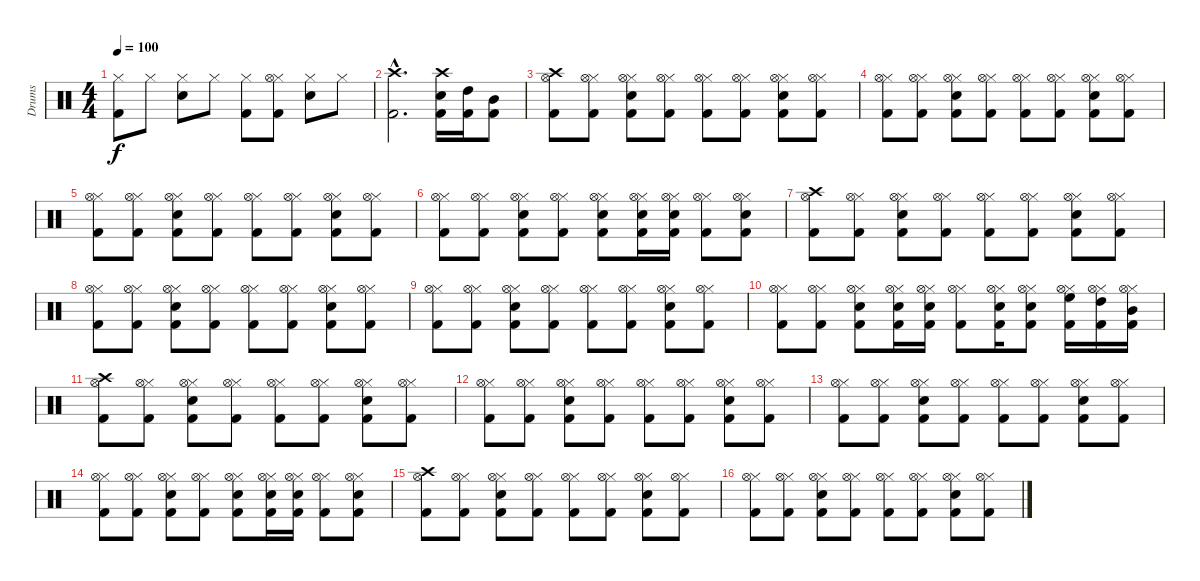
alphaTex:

\track ("Drums" "Drums") {instrument percussion}
\staff {score}
\articulation defaults
\ts (4 4)
\tempo 100
\clef neutral
\ks c
("Hi-Hat (closed)" "Kick (hit) 2").8{dy f} "Hi-Hat (closed)".8 ("Hi-Hat (closed)" "Electric Snare (hit)").8 "Hi-Hat (closed)".8 ("Hi-Hat (closed)" "Kick (hit) 2").8 ("Hi-Hat (closed)" "Kick (hit) 2" "Hi-Hat (open)").8 ("Hi-Hat (closed)" "Electric Snare (hit)").8 "Hi-Hat (closed)".8 |
("Crash high (hit)"{hac} "Kick (hit) 2"{hac}).2{d} ("Crash high (hit)" "Electric Snare (hit)" "Kick (hit) 2").16 ("High Tom (hit)" "Kick (hit) 2").16 ("Mid Tom (hit)" "Kick (hit) 2").8 |
("Crash high (hit)" "Kick (hit) 2" "Hi-Hat (open)").8 ("Hi-Hat (closed)" "Kick (hit) 2" "Hi-Hat (open)").8 ("Hi-Hat (closed)" "Kick (hit) 2" "Electric Snare (hit)" "Hi-Hat (open)").8 ("Hi-Hat (closed)" "Kick (hit) 2" "Hi-Hat (open)").8 ("Hi-Hat (closed)" "Kick (hit) 2" "Hi-Hat (open)").8 ("Hi-Hat (closed)" "Kick (hit) 2" "Hi-Hat (open)").8 ("Hi-Hat (closed)" "Kick (hit) 2" "Electric Snare (hit)" "Hi-Hat (open)").8 ("Hi-Hat (closed)" "Kick (hit) 2" "Hi-Hat (open)").8 |
("Hi-Hat (closed)" "Kick (hit) 2" "Hi-Hat (open)").8 ("Hi-Hat (closed)" "Kick (hit) 2" "Hi-Hat (open)").8 ("Hi-Hat (closed)" "Kick (hit) 2" "Electric Snare (hit)" "Hi-Hat (open)").8 ("Hi-Hat (closed)" "Kick (hit) 2" "Hi-Hat (open)").8 ("Hi-Hat (closed)" "Kick (hit) 2" "Hi-Hat (open)").8 ("Hi-Hat (closed)" "Kick (hit) 2" "Hi-Hat (open)").8 ("Hi-Hat (closed)" "Kick (hit) 2" "Electric Snare (hit)" "Hi-Hat (open)").8 ("Hi-Hat (closed)" "Kick (hit) 2" "Hi-Hat (open)").8 |
("Hi-Hat (closed)" "Kick (hit) 2" "Hi-Hat (open)").8 ("Hi-Hat (closed)" "Kick (hit) 2" "Hi-Hat (open)").8 ("Hi-Hat (closed)" "Kick (hit) 2" "Electric Snare (hit)" "Hi-Hat (open)").8 ("Hi-Hat (closed)" "Kick (hit) 2" "Hi-Hat (open)").8 ("Hi-Hat (closed)" "Kick (hit) 2" "Hi-Hat (open)").8 ("Hi-Hat (closed)" "Kick (hit) 2" "Hi-Hat (open)").8 ("Hi-Hat (closed)" "Kick (hit) 2" "Electric Snare (hit)" "Hi-Hat (open)").8 ("Hi-Hat (closed)" "Kick (hit) 2" "Hi-Hat (open)").8 |
("Hi-Hat (closed)" "Kick (hit) 2" "Hi-Hat (open)").8 ("Hi-Hat (closed)" "Kick (hit) 2" "Hi-Hat (open)").8 ("Hi-Hat (closed)" "Kick (hit) 2" "Electric Snare (hit)" "Hi-Hat (open)").8 ("Hi-Hat (closed)" "Kick (hit) 2" "Hi-Hat (open)").8 ("Hi-Hat (closed)" "Kick (hit) 2" "Electric Snare (hit)" "Hi-Hat (open)").8 ("Hi-Hat (closed)" "Kick (hit) 2" "Electric Snare (hit)" "Hi-Hat (open)").16 ("Hi-Hat (closed)" "Kick (hit) 2" "Electric Snare (hit)" "Hi-Hat (open)").16 ("Hi-Hat (closed)" "Kick (hit) 2" "Hi-Hat (open)").8 ("Hi-Hat (closed)" "Kick (hit) 2" "Electric Snare (hit)" "Hi-Hat (open)").8 |
("Crash high (hit)" "Kick (hit) 2" "Hi-Hat (open)").8 ("Hi-Hat (closed)" "Kick (hit) 2" "Hi-Hat (open)").8 ("Hi-Hat (closed)" "Kick (hit) 2" "Electric Snare (hit)" "Hi-Hat (open)").8 ("Hi-Hat (closed)" "Kick (hit) 2" "Hi-Hat (open)").8 ("Hi-Hat (closed)" "Kick (hit) 2" "Hi-Hat (open)").8 ("Hi-Hat (closed)" "Kick (hit) 2" "Hi-Hat (open)").8 ("Hi-Hat (closed)" "Kick (hit) 2" "Electric Snare (hit)" "Hi-Hat (open)").8 ("Hi-Hat (closed)" "Kick (hit) 2" "Hi-Hat (open)").8 |
("Hi-Hat (closed)" "Kick (hit) 2" "Hi-Hat (open)").8 ("Hi-Hat (closed)" "Kick (hit) 2" "Hi-Hat (open)").8 ("Hi-Hat (closed)" "Kick (hit) 2" "Electric Snare (hit)" "Hi-Hat (open)").8 ("Hi-Hat (closed)" "Kick (hit) 2" "Hi-Hat (open)").8 ("Hi-Hat (closed)" "Kick (hit) 2" "Hi-Hat (open)").8 ("Hi-Hat (closed)" "Kick (hit) 2" "Hi-Hat (open)").8 ("Hi-Hat (closed)" "Kick (hit) 2" "Electric Snare (hit)" "Hi-Hat (open)").8 ("Hi-Hat (closed)" "Kick (hit) 2" "Hi-Hat (open)").8 |
("Hi-Hat (closed)" "Kick (hit) 2" "Hi-Hat (open)").8 ("Hi-Hat (closed)" "Kick (hit) 2" "Hi-Hat (open)").8 ("Hi-Hat (closed)" "Kick (hit) 2" "Electric Snare (hit)" "Hi-Hat (open)").8 ("Hi-Hat (closed)" "Kick (hit) 2" "Hi-Hat (open)").8 ("Hi-Hat (closed)" "Kick (hit) 2" "Hi-Hat (open)").8 ("Hi-Hat (closed)" "Kick (hit) 2" "Hi-Hat (open)").8 ("Hi-Hat (closed)" "Kick (hit) 2" "Electric Snare (hit)" "Hi-Hat (open)").8 ("Hi-Hat (closed)" "Kick (hit) 2" "Hi-Hat (open)").8 |
("Hi-Hat (closed)" "Kick (hit) 2" "Hi-Hat (open)").8 ("Hi-Hat (closed)" "Kick (hit) 2" "Hi-Hat (open)").8 ("Hi-Hat (closed)" "Kick (hit) 2" "Electric Snare (hit)" "Hi-Hat (open)").8 ("Hi-Hat (closed)" "Kick (hit) 2" "Electric Snare (hit)" "Hi-Hat (open)").16 ("Hi-Hat (closed)" "Kick (hit) 2" "Electric Snare (hit)" "Hi-Hat (open)").16 ("Hi-Hat (closed)" "Kick (hit) 2" "Hi-Hat (open)").8 ("Hi-Hat (closed)" "Kick (hit) 2" "Electric Snare (hit)" "Hi-Hat (open)").16 ("Hi-Hat (closed)" "Kick (hit) 2" "Electric Snare (hit)" "Hi-Hat (open)").8 ("Hi-Hat (closed)" "Kick (hit) 2" "High Floor Tom (hit)" "Hi-Hat (open)").16 ("Hi-Hat (closed)" "Kick (hit) 2" "High Tom (hit)" "Hi-Hat (open)").16 ("Hi-Hat (closed)" "Kick (hit) 2" "Mid Tom (hit)" "Hi-Hat (open)").16 |
("Crash high (hit)" "Kick (hit) 2" "Hi-Hat (open)").8 ("Hi-Hat (closed)" "Kick (hit) 2" "Hi-Hat (open)").8 ("Hi-Hat (closed)" "Kick (hit) 2" "Electric Snare (hit)" "Hi-Hat (open)").8 ("Hi-Hat (closed)" "Kick (hit) 2" "Hi-Hat (open)").8 ("Hi-Hat (closed)" "Kick (hit) 2" "Hi-Hat (open)").8 ("Hi-Hat (closed)" "Kick (hit) 2" "Hi-Hat (open)").8 ("Hi-Hat (closed)" "Kick (hit) 2" "Electric Snare (hit)" "Hi-Hat (open)").8 ("Hi-Hat (closed)" "Kick (hit) 2" "Hi-Hat (open)").8 |
("Hi-Hat (closed)" "Kick (hit) 2" "Hi-Hat (open)").8 ("Hi-Hat (closed)" "Kick (hit) 2" "Hi-Hat (open)").8 ("Hi-Hat (closed)" "Kick (hit) 2" "Electric Snare (hit)" "Hi-Hat (open)").8 ("Hi-Hat (closed)" "Kick (hit) 2" "Hi-Hat (open)").8 ("Hi-Hat (closed)" "Kick (hit) 2" "Hi-Hat (open)").8 ("Hi-Hat (closed)" "Kick (hit) 2" "Hi-Hat (open)").8 ("Hi-Hat (closed)" "Kick (hit) 2" "Electric Snare (hit)" "Hi-Hat (open)").8 ("Hi-Hat (closed)" "Kick (hit) 2" "Hi-Hat (open)").8 |
("Hi-Hat (closed)" "Kick (hit) 2" "Hi-Hat (open)").8 ("Hi-Hat (closed)" "Kick (hit) 2" "Hi-Hat (open)").8 ("Hi-Hat (closed)" "Kick (hit) 2" "Electric Snare (hit)" "Hi-Hat (open)").8 ("Hi-Hat (closed)" "Kick (hit) 2" "Hi-Hat (open)").8 ("Hi-Hat (closed)" "Kick (hit) 2" "Hi-Hat (open)").8 ("Hi-Hat (closed)" "Kick (hit) 2" "Hi-Hat (open)").8 ("Hi-Hat (closed)" "Kick (hit) 2" "Electric Snare (hit)" "Hi-Hat (open)").8 ("Hi-Hat (closed)" "Kick (hit) 2" "Hi-Hat (open)").8 |
("Hi-Hat (closed)" "Kick (hit) 2" "Hi-Hat (open)").8 ("Hi-Hat (closed)" "Kick (hit) 2" "Hi-Hat (open)").8 ("Hi-Hat (closed)" "Kick (hit) 2" "Electric Snare (hit)" "Hi-Hat (open)").8 ("Hi-Hat (closed)" "Kick (hit) 2" "Hi-Hat (open)").8 ("Hi-Hat (closed)" "Kick (hit) 2" "Electric Snare (hit)" "Hi-Hat (open)").8 ("Hi-Hat (closed)" "Kick (hit) 2" "Electric Snare (hit)" "Hi-Hat (open)").16 ("Hi-Hat (closed)" "Kick (hit) 2" "Electric Snare (hit)" "Hi-Hat (open)").16 ("Hi-Hat (closed)" "Kick (hit) 2" "Hi-Hat (open)").8 ("Hi-Hat (closed)" "Kick (hit) 2" "Electric Snare (hit)" "Hi-Hat (open)").8 |
("Crash high (hit)" "Kick (hit) 2" "Hi-Hat (open)").8 ("Hi-Hat (closed)" "Kick (hit) 2" "Hi-Hat (open)").8 ("Hi-Hat (closed)" "Kick (hit) 2" "Electric Snare (hit)" "Hi-Hat (open)").8 ("Hi-Hat (closed)" "Kick (hit) 2" "Hi-Hat (open)").8 ("Hi-Hat (closed)" "Kick (hit) 2" "Hi-Hat (open)").8 ("Hi-Hat (closed)" "Kick (hit) 2" "Hi-Hat (open)").8 ("Hi-Hat (closed)" "Kick (hit) 2" "Electric Snare (hit)" "Hi-Hat (open)").8 ("Hi-Hat (closed)" "Kick (hit) 2" "Hi-Hat (open)").8 |
("Hi-Hat (closed)" "Kick (hit) 2" "Hi-Hat (open)").8 ("Hi-Hat (closed)" "Kick (hit) 2" "Hi-Hat (open)").8 ("Hi-Hat (closed)" "Kick (hit) 2" "Electric Snare (hit)" "Hi-Hat (open)").8 ("Hi-Hat (closed)" "Kick (hit) 2" "Hi-Hat (open)").8 ("Hi-Hat (closed)" "Kick (hit) 2" "Hi-Hat (open)").8 ("Hi-Hat (closed)" "Kick (hit) 2" "Hi-Hat (open)").8 ("Hi-Hat (closed)" "Kick (hit) 2" "Electric Snare (hit)" "Hi-Hat (open)").8 ("Hi-Hat (closed)" "Kick (hit) 2" "Hi-Hat (open)").8
